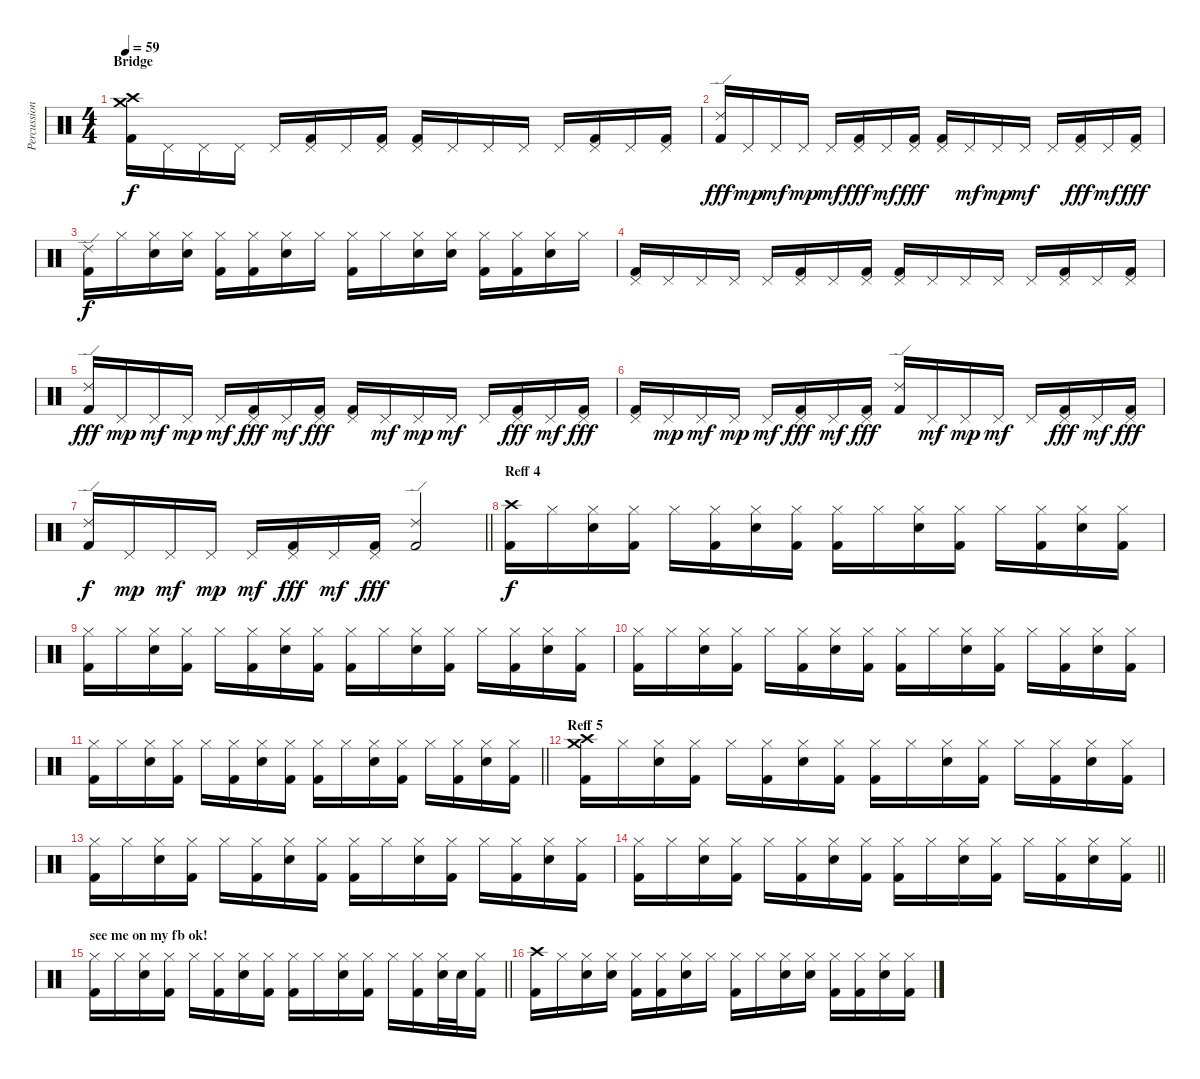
\track ("Percussion 1" "Percussion") {instrument percussion}
\staff {score}
\articulation defaults
\ts (4 4)
\section ("" "Bridge")
\tempo 59
\clef neutral
\ks c
("Crash medium (hit)" "Crash high (hit)" "Kick (hit) 2").16{dy f} "Pedal Hi-Hat (hit)".16 "Pedal Hi-Hat (hit)".16 "Pedal Hi-Hat (hit)".16 "Pedal Hi-Hat (hit)".16 ("Pedal Hi-Hat (hit)" "Kick (hit) 2").16 "Pedal Hi-Hat (hit)".16 ("Pedal Hi-Hat (hit)" "Kick (hit) 2").16 ("Pedal Hi-Hat (hit)" "Kick (hit) 2").16 "Pedal Hi-Hat (hit)".16 "Pedal Hi-Hat (hit)".16 "Pedal Hi-Hat (hit)".16 "Pedal Hi-Hat (hit)".16 ("Pedal Hi-Hat (hit)" "Kick (hit) 2").16 "Pedal Hi-Hat (hit)".16 ("Pedal Hi-Hat (hit)" "Kick (hit) 2").16 |
("Ride (edge) 2" "Kick (hit) 2").16{dy fff} "Pedal Hi-Hat (hit)".16{dy mp} "Pedal Hi-Hat (hit)".16{dy mf} "Pedal Hi-Hat (hit)".16{dy mp} "Pedal Hi-Hat (hit)".16{dy mf} ("Pedal Hi-Hat (hit)" "Kick (hit) 2").16{dy fff} "Pedal Hi-Hat (hit)".16{dy mf} ("Pedal Hi-Hat (hit)" "Kick (hit) 2").16{dy fff} ("Pedal Hi-Hat (hit)" "Kick (hit) 2").16 "Pedal Hi-Hat (hit)".16{dy mf} "Pedal Hi-Hat (hit)".16{dy mp} "Pedal Hi-Hat (hit)".16{dy mf} "Pedal Hi-Hat (hit)".16 ("Pedal Hi-Hat (hit)" "Kick (hit) 2").16{dy fff} "Pedal Hi-Hat (hit)".16{dy mf} ("Pedal Hi-Hat (hit)" "Kick (hit) 2").16{dy fff} |
("Ride (edge) 2" "Kick (hit) 2").16{dy f} "Hi-Hat (closed)".16 ("Hi-Hat (closed)" "Snare (hit) 2").16 ("Hi-Hat (closed)" "Snare (hit) 2").16 ("Hi-Hat (closed)" "Kick (hit) 2").16 ("Hi-Hat (closed)" "Kick (hit) 2").16 ("Hi-Hat (closed)" "Snare (hit) 2").16 "Hi-Hat (closed)".16 ("Hi-Hat (closed)" "Kick (hit) 2").16 "Hi-Hat (closed)".16 ("Hi-Hat (closed)" "Snare (hit) 2").16 ("Hi-Hat (closed)" "Snare (hit) 2").16 ("Hi-Hat (closed)" "Kick (hit) 2").16 ("Hi-Hat (closed)" "Kick (hit) 2").16 ("Hi-Hat (closed)" "Snare (hit) 2").16 "Hi-Hat (closed)".16 |
("Pedal Hi-Hat (hit)" "Kick (hit) 2").16 "Pedal Hi-Hat (hit)".16 "Pedal Hi-Hat (hit)".16 "Pedal Hi-Hat (hit)".16 "Pedal Hi-Hat (hit)".16 ("Pedal Hi-Hat (hit)" "Kick (hit) 2").16 "Pedal Hi-Hat (hit)".16 ("Pedal Hi-Hat (hit)" "Kick (hit) 2").16 ("Pedal Hi-Hat (hit)" "Kick (hit) 2").16 "Pedal Hi-Hat (hit)".16 "Pedal Hi-Hat (hit)".16 "Pedal Hi-Hat (hit)".16 "Pedal Hi-Hat (hit)".16 ("Pedal Hi-Hat (hit)" "Kick (hit) 2").16 "Pedal Hi-Hat (hit)".16 ("Pedal Hi-Hat (hit)" "Kick (hit) 2").16 |
("Ride (edge) 2" "Kick (hit) 2").16{dy fff} "Pedal Hi-Hat (hit)".16{dy mp} "Pedal Hi-Hat (hit)".16{dy mf} "Pedal Hi-Hat (hit)".16{dy mp} "Pedal Hi-Hat (hit)".16{dy mf} ("Pedal Hi-Hat (hit)" "Kick (hit) 2").16{dy fff} "Pedal Hi-Hat (hit)".16{dy mf} ("Pedal Hi-Hat (hit)" "Kick (hit) 2").16{dy fff} ("Pedal Hi-Hat (hit)" "Kick (hit) 2").16 "Pedal Hi-Hat (hit)".16{dy mf} "Pedal Hi-Hat (hit)".16{dy mp} "Pedal Hi-Hat (hit)".16{dy mf} "Pedal Hi-Hat (hit)".16 ("Pedal Hi-Hat (hit)" "Kick (hit) 2").16{dy fff} "Pedal Hi-Hat (hit)".16{dy mf} ("Pedal Hi-Hat (hit)" "Kick (hit) 2").16{dy fff} |
("Pedal Hi-Hat (hit)" "Kick (hit) 2").16 "Pedal Hi-Hat (hit)".16{dy mp} "Pedal Hi-Hat (hit)".16{dy mf} "Pedal Hi-Hat (hit)".16{dy mp} "Pedal Hi-Hat (hit)".16{dy mf} ("Pedal Hi-Hat (hit)" "Kick (hit) 2").16{dy fff} "Pedal Hi-Hat (hit)".16{dy mf} ("Pedal Hi-Hat (hit)" "Kick (hit) 2").16{dy fff} ("Ride (edge) 2" "Kick (hit) 2").16 "Pedal Hi-Hat (hit)".16{dy mf} "Pedal Hi-Hat (hit)".16{dy mp} "Pedal Hi-Hat (hit)".16{dy mf} "Pedal Hi-Hat (hit)".16 ("Pedal Hi-Hat (hit)" "Kick (hit) 2").16{dy fff} "Pedal Hi-Hat (hit)".16{dy mf} ("Pedal Hi-Hat (hit)" "Kick (hit) 2").16{dy fff} |
\barLineRight lightlight
("Ride (edge) 2" "Kick (hit) 2").16{dy f} "Pedal Hi-Hat (hit)".16{dy mp} "Pedal Hi-Hat (hit)".16{dy mf} "Pedal Hi-Hat (hit)".16{dy mp} "Pedal Hi-Hat (hit)".16{dy mf} ("Pedal Hi-Hat (hit)" "Kick (hit) 2").16{dy fff} "Pedal Hi-Hat (hit)".16{dy mf} ("Pedal Hi-Hat (hit)" "Kick (hit) 2").16{dy fff} ("Ride (edge) 2" "Kick (hit) 2").2 |
\section ("" "Reff 4")
("Crash high (hit)" "Kick (hit) 2").16{dy f} "Hi-Hat (closed)".16 ("Hi-Hat (closed)" "Snare (hit) 2").16 ("Hi-Hat (closed)" "Kick (hit) 2").16 "Hi-Hat (closed)".16 ("Hi-Hat (closed)" "Kick (hit) 2").16 ("Hi-Hat (closed)" "Snare (hit) 2").16 ("Hi-Hat (closed)" "Kick (hit) 2").16 ("Hi-Hat (closed)" "Kick (hit) 2").16 "Hi-Hat (closed)".16 ("Hi-Hat (closed)" "Snare (hit) 2").16 ("Hi-Hat (closed)" "Kick (hit) 2").16 "Hi-Hat (closed)".16 ("Hi-Hat (closed)" "Kick (hit) 2").16 ("Hi-Hat (closed)" "Snare (hit) 2").16 ("Hi-Hat (closed)" "Kick (hit) 2").16 |
("Hi-Hat (closed)" "Kick (hit) 2").16 "Hi-Hat (closed)".16 ("Hi-Hat (closed)" "Snare (hit) 2").16 ("Hi-Hat (closed)" "Kick (hit) 2").16 "Hi-Hat (closed)".16 ("Hi-Hat (closed)" "Kick (hit) 2").16 ("Hi-Hat (closed)" "Snare (hit) 2").16 ("Hi-Hat (closed)" "Kick (hit) 2").16 ("Hi-Hat (closed)" "Kick (hit) 2").16 "Hi-Hat (closed)".16 ("Hi-Hat (closed)" "Snare (hit) 2").16 ("Hi-Hat (closed)" "Kick (hit) 2").16 "Hi-Hat (closed)".16 ("Hi-Hat (closed)" "Kick (hit) 2").16 ("Hi-Hat (closed)" "Snare (hit) 2").16 ("Hi-Hat (closed)" "Kick (hit) 2").16 |
("Hi-Hat (closed)" "Kick (hit) 2").16 "Hi-Hat (closed)".16 ("Hi-Hat (closed)" "Snare (hit) 2").16 ("Hi-Hat (closed)" "Kick (hit) 2").16 "Hi-Hat (closed)".16 ("Hi-Hat (closed)" "Kick (hit) 2").16 ("Hi-Hat (closed)" "Snare (hit) 2").16 ("Hi-Hat (closed)" "Kick (hit) 2").16 ("Hi-Hat (closed)" "Kick (hit) 2").16 "Hi-Hat (closed)".16 ("Hi-Hat (closed)" "Snare (hit) 2").16 ("Hi-Hat (closed)" "Kick (hit) 2").16 "Hi-Hat (closed)".16 ("Hi-Hat (closed)" "Kick (hit) 2").16 ("Hi-Hat (closed)" "Snare (hit) 2").16 ("Hi-Hat (closed)" "Kick (hit) 2").16 |
\barLineRight lightlight
("Hi-Hat (closed)" "Kick (hit) 2").16 "Hi-Hat (closed)".16 ("Hi-Hat (closed)" "Snare (hit) 2").16 ("Hi-Hat (closed)" "Kick (hit) 2").16 "Hi-Hat (closed)".16 ("Hi-Hat (closed)" "Kick (hit) 2").16 ("Hi-Hat (closed)" "Snare (hit) 2").16 ("Hi-Hat (closed)" "Kick (hit) 2").16 ("Hi-Hat (closed)" "Kick (hit) 2").16 "Hi-Hat (closed)".16 ("Hi-Hat (closed)" "Snare (hit) 2").16 ("Hi-Hat (closed)" "Kick (hit) 2").16 "Hi-Hat (closed)".16 ("Hi-Hat (closed)" "Kick (hit) 2").16 ("Hi-Hat (closed)" "Snare (hit) 2").16 ("Hi-Hat (closed)" "Kick (hit) 2").16 |
\section ("" "Reff 5")
("Crash high (hit)" "Crash medium (hit)" "Kick (hit) 2").16 "Hi-Hat (closed)".16 ("Hi-Hat (closed)" "Snare (hit) 2").16 ("Hi-Hat (closed)" "Kick (hit) 2").16 "Hi-Hat (closed)".16 ("Hi-Hat (closed)" "Kick (hit) 2").16 ("Hi-Hat (closed)" "Snare (hit) 2").16 ("Hi-Hat (closed)" "Kick (hit) 2").16 ("Hi-Hat (closed)" "Kick (hit) 2").16 "Hi-Hat (closed)".16 ("Hi-Hat (closed)" "Snare (hit) 2").16 ("Hi-Hat (closed)" "Kick (hit) 2").16 "Hi-Hat (closed)".16 ("Hi-Hat (closed)" "Kick (hit) 2").16 ("Hi-Hat (closed)" "Snare (hit) 2").16 ("Hi-Hat (closed)" "Kick (hit) 2").16 |
("Hi-Hat (closed)" "Kick (hit) 2").16 "Hi-Hat (closed)".16 ("Hi-Hat (closed)" "Snare (hit) 2").16 ("Hi-Hat (closed)" "Kick (hit) 2").16 "Hi-Hat (closed)".16 ("Hi-Hat (closed)" "Kick (hit) 2").16 ("Hi-Hat (closed)" "Snare (hit) 2").16 ("Hi-Hat (closed)" "Kick (hit) 2").16 ("Hi-Hat (closed)" "Kick (hit) 2").16 "Hi-Hat (closed)".16 ("Hi-Hat (closed)" "Snare (hit) 2").16 ("Hi-Hat (closed)" "Kick (hit) 2").16 "Hi-Hat (closed)".16 ("Hi-Hat (closed)" "Kick (hit) 2").16 ("Hi-Hat (closed)" "Snare (hit) 2").16 ("Hi-Hat (closed)" "Kick (hit) 2").16 |
\barLineRight lightlight
("Hi-Hat (closed)" "Kick (hit) 2").16 "Hi-Hat (closed)".16 ("Hi-Hat (closed)" "Snare (hit) 2").16 ("Hi-Hat (closed)" "Kick (hit) 2").16 "Hi-Hat (closed)".16 ("Hi-Hat (closed)" "Kick (hit) 2").16 ("Hi-Hat (closed)" "Snare (hit) 2").16 ("Hi-Hat (closed)" "Kick (hit) 2").16 ("Hi-Hat (closed)" "Kick (hit) 2").16 "Hi-Hat (closed)".16 ("Hi-Hat (closed)" "Snare (hit) 2").16 ("Hi-Hat (closed)" "Kick (hit) 2").16 "Hi-Hat (closed)".16 ("Hi-Hat (closed)" "Kick (hit) 2").16 ("Hi-Hat (closed)" "Snare (hit) 2").16 ("Hi-Hat (closed)" "Kick (hit) 2").16 |
\section ("" "see me on my fb ok!")
\barLineRight lightlight
("Hi-Hat (closed)" "Kick (hit) 2").16 "Hi-Hat (closed)".16 ("Hi-Hat (closed)" "Snare (hit) 2").16 ("Hi-Hat (closed)" "Kick (hit) 2").16 "Hi-Hat (closed)".16 ("Hi-Hat (closed)" "Kick (hit) 2").16 ("Hi-Hat (closed)" "Snare (hit) 2").16 ("Hi-Hat (closed)" "Kick (hit) 2").16 ("Hi-Hat (closed)" "Kick (hit) 2").16 "Hi-Hat (closed)".16 ("Hi-Hat (closed)" "Snare (hit) 2").16 ("Hi-Hat (closed)" "Kick (hit) 2").16 "Hi-Hat (closed)".16 ("Hi-Hat (closed)" "Kick (hit) 2").16 ("Hi-Hat (closed)" "Snare (hit) 2").32 "Snare (hit) 2".32 ("Hi-Hat (closed)" "Kick (hit) 2").16 |
("Crash high (hit)" "Kick (hit) 2").16 "Hi-Hat (closed)".16 ("Hi-Hat (closed)" "Snare (hit) 2").16 ("Hi-Hat (closed)" "Snare (hit) 2").16 ("Hi-Hat (closed)" "Kick (hit) 2").16 ("Hi-Hat (closed)" "Kick (hit) 2").16 ("Hi-Hat (closed)" "Snare (hit) 2").16 "Hi-Hat (closed)".16 ("Hi-Hat (closed)" "Kick (hit) 2").16 "Hi-Hat (closed)".16 ("Hi-Hat (closed)" "Snare (hit) 2").16 ("Hi-Hat (closed)" "Snare (hit) 2").16 ("Hi-Hat (closed)" "Kick (hit) 2").16 ("Hi-Hat (closed)" "Kick (hit) 2").16 ("Hi-Hat (closed)" "Snare (hit) 2").16 ("Hi-Hat (closed)" "Kick (hit) 2").16
